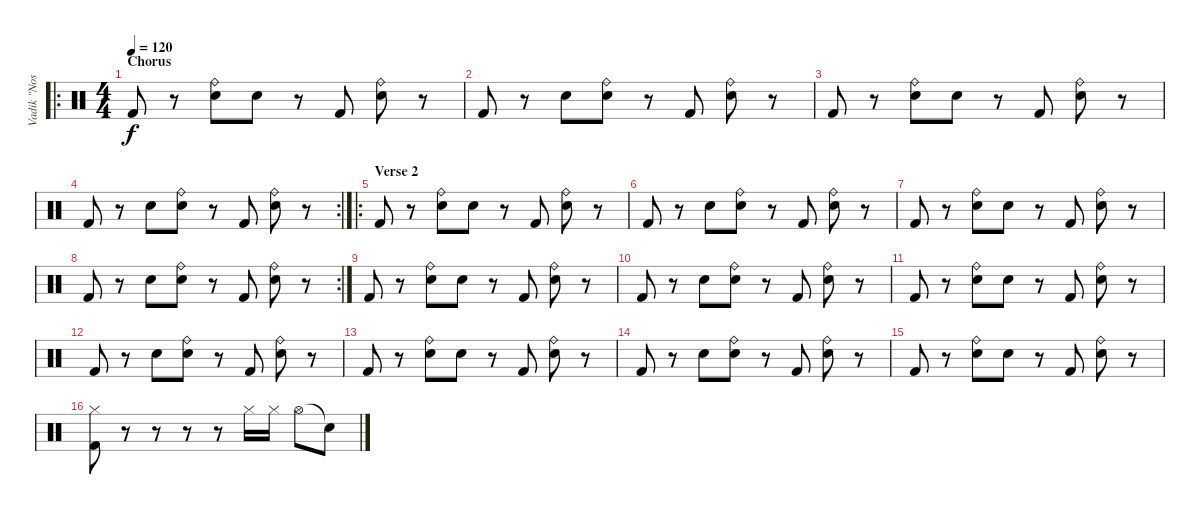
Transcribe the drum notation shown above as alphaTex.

\track ("Vadik \"Nos\"" "Vadik \"Nos") {instrument percussion}
\staff {score}
\articulation defaults
\ro
\ts (4 4)
\section ("" "Chorus")
\tempo 120
\clef neutral
\ks c "Kick (hit) 2".8{dy f}
r.8 ("Snare (hit) 2" "Ride (bell)").8 "Snare (hit) 2".8 r.8 "Kick (hit) 2".8 ("Snare (hit) 2" "Ride (bell)").8 r.8 |
"Kick (hit) 2".8 r.8 "Snare (hit) 2".8 ("Snare (hit) 2" "Ride (bell)").8 r.8 "Kick (hit) 2".8 ("Snare (hit) 2" "Ride (bell)").8 r.8 |
"Kick (hit) 2".8 r.8 ("Snare (hit) 2" "Ride (bell)").8 "Snare (hit) 2".8 r.8 "Kick (hit) 2".8 ("Snare (hit) 2" "Ride (bell)").8 r.8 |
\rc 2 "Kick (hit) 2".8
r.8 "Snare (hit) 2".8 ("Snare (hit) 2" "Ride (bell)").8 r.8 "Kick (hit) 2".8 ("Snare (hit) 2" "Ride (bell)").8 r.8 |
\ro
\section ("" "Verse 2")
"Kick (hit) 2".8 r.8 ("Snare (hit) 2" "Ride (bell)").8 "Snare (hit) 2".8 r.8 "Kick (hit) 2".8 ("Snare (hit) 2" "Ride (bell)").8 r.8 |
"Kick (hit) 2".8 r.8 "Snare (hit) 2".8 ("Snare (hit) 2" "Ride (bell)").8 r.8 "Kick (hit) 2".8 ("Snare (hit) 2" "Ride (bell)").8 r.8 |
"Kick (hit) 2".8 r.8 ("Snare (hit) 2" "Ride (bell)").8 "Snare (hit) 2".8 r.8 "Kick (hit) 2".8 ("Snare (hit) 2" "Ride (bell)").8 r.8 |
\rc 2 "Kick (hit) 2".8
r.8 "Snare (hit) 2".8 ("Snare (hit) 2" "Ride (bell)").8 r.8 "Kick (hit) 2".8 ("Snare (hit) 2" "Ride (bell)").8 r.8 |
"Kick (hit) 2".8 r.8 ("Snare (hit) 2" "Ride (bell)").8 "Snare (hit) 2".8 r.8 "Kick (hit) 2".8 ("Snare (hit) 2" "Ride (bell)").8 r.8 |
"Kick (hit) 2".8 r.8 "Snare (hit) 2".8 ("Snare (hit) 2" "Ride (bell)").8 r.8 "Kick (hit) 2".8 ("Snare (hit) 2" "Ride (bell)").8 r.8 |
"Kick (hit) 2".8 r.8 ("Snare (hit) 2" "Ride (bell)").8 "Snare (hit) 2".8 r.8 "Kick (hit) 2".8 ("Snare (hit) 2" "Ride (bell)").8 r.8 |
"Kick (hit) 2".8 r.8 "Snare (hit) 2".8 ("Snare (hit) 2" "Ride (bell)").8 r.8 "Kick (hit) 2".8 ("Snare (hit) 2" "Ride (bell)").8 r.8 |
"Kick (hit) 2".8 r.8 ("Snare (hit) 2" "Ride (bell)").8 "Snare (hit) 2".8 r.8 "Kick (hit) 2".8 ("Snare (hit) 2" "Ride (bell)").8 r.8 |
"Kick (hit) 2".8 r.8 "Snare (hit) 2".8 ("Snare (hit) 2" "Ride (bell)").8 r.8 "Kick (hit) 2".8 ("Snare (hit) 2" "Ride (bell)").8 r.8 |
"Kick (hit) 2".8 r.8 ("Snare (hit) 2" "Ride (bell)").8 "Snare (hit) 2".8 r.8 "Kick (hit) 2".8 ("Snare (hit) 2" "Ride (bell)").8 r.8 |
("Kick (hit) 2" "Hi-Hat (closed)").8 r.8 r.8 r.8 r.8 "Hi-Hat (closed)".16 "Hi-Hat (closed)".16 "Hi-Hat (open)".8 "Snare (hit)"{t}.8
